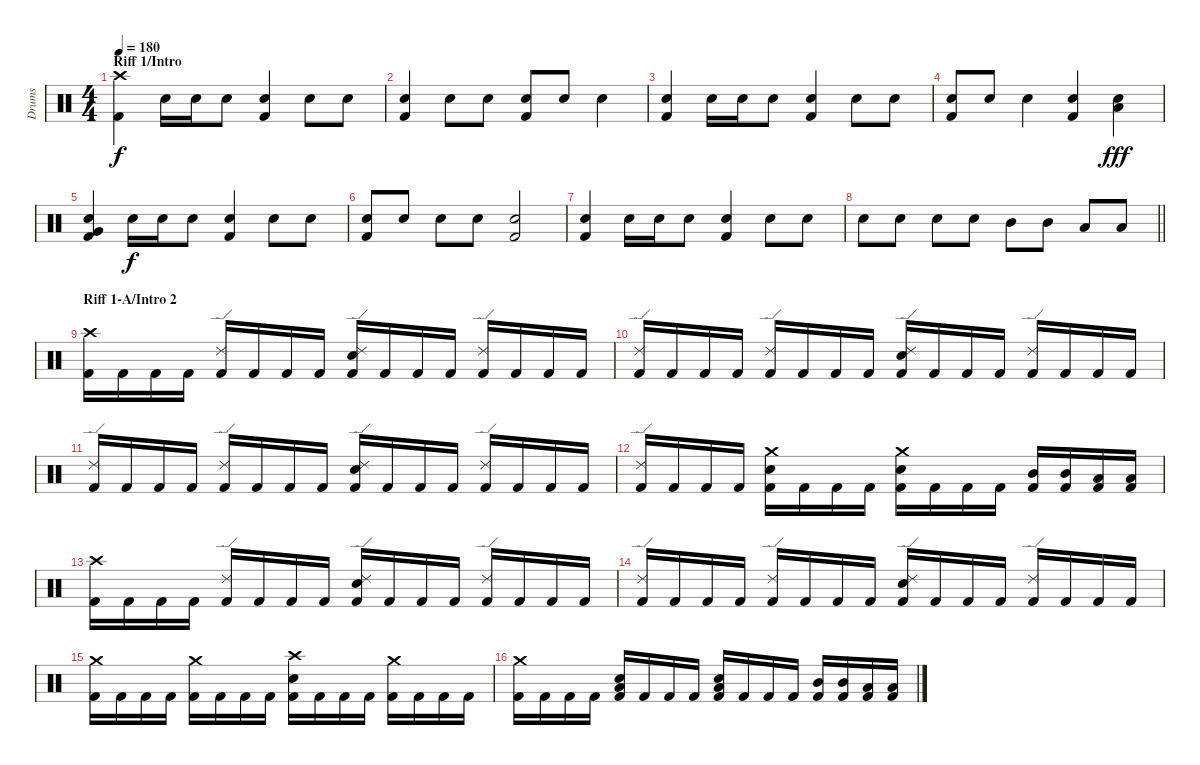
\track ("Drums" "Drums") {instrument percussion}
\staff {score}
\articulation defaults
\ts (4 4)
\section ("" "Riff 1/Intro")
\tempo 180
\clef neutral
\ks c
("Crash high (hit)" "Kick (hit) 2").4{dy f} "Electric Snare (hit)".16 "Electric Snare (hit)".16 "Electric Snare (hit)".8 ("Electric Snare (hit)" "Kick (hit) 2").4 "Electric Snare (hit)".8 "Electric Snare (hit)".8 |
("Electric Snare (hit)" "Kick (hit) 2").4 "Electric Snare (hit)".8 "Electric Snare (hit)".8 ("Electric Snare (hit)" "Kick (hit) 2").8 "Electric Snare (hit)".8 "Electric Snare (hit)".4 |
("Electric Snare (hit)" "Kick (hit) 2").4 "Electric Snare (hit)".16 "Electric Snare (hit)".16 "Electric Snare (hit)".8 ("Electric Snare (hit)" "Kick (hit) 2").4 "Electric Snare (hit)".8 "Electric Snare (hit)".8 |
("Electric Snare (hit)" "Kick (hit) 2").8 "Electric Snare (hit)".8 "Electric Snare (hit)".4 ("Electric Snare (hit)" "Kick (hit) 2").4 ("Low Tom (hit)" "Electric Snare (hit)").4{dy fff} |
("Very Low Tom (hit)" "Electric Snare (hit)" "Kick (hit) 2").4 "Electric Snare (hit)".16{dy f} "Electric Snare (hit)".16 "Electric Snare (hit)".8 ("Electric Snare (hit)" "Kick (hit) 2").4 "Electric Snare (hit)".8 "Electric Snare (hit)".8 |
("Electric Snare (hit)" "Kick (hit) 2").8 "Electric Snare (hit)".8 "Electric Snare (hit)".8 "Electric Snare (hit)".8 ("Electric Snare (hit)" "Kick (hit) 2").2 |
("Electric Snare (hit)" "Kick (hit) 2").4 "Electric Snare (hit)".16 "Electric Snare (hit)".16 "Electric Snare (hit)".8 ("Electric Snare (hit)" "Kick (hit) 2").4 "Electric Snare (hit)".8 "Electric Snare (hit)".8 |
\barLineRight lightlight "Electric Snare (hit)".8 "Electric Snare (hit)".8 "Electric Snare (hit)".8 "Electric Snare (hit)".8 "Mid Tom (hit)".8 "Mid Tom (hit)".8 "Low Tom (hit)".8 "Low Tom (hit)".8
|
\section ("" "Riff 1-A/Intro 2")
("Crash high (hit)" "Kick (hit) 2").16 "Kick (hit) 2".16 "Kick (hit) 2".16 "Kick (hit) 2".16 ("Ride (edge) 2" "Kick (hit) 2").16 "Kick (hit) 2".16 "Kick (hit) 2".16 "Kick (hit) 2".16 ("Ride (edge) 2" "Electric Snare (hit)" "Kick (hit) 2").16 "Kick (hit) 2".16 "Kick (hit) 2".16 "Kick (hit) 2".16 ("Ride (edge) 2" "Kick (hit) 2").16 "Kick (hit) 2".16 "Kick (hit) 2".16 "Kick (hit) 2".16 |
("Ride (edge) 2" "Kick (hit) 2").16 "Kick (hit) 2".16 "Kick (hit) 2".16 "Kick (hit) 2".16 ("Ride (edge) 2" "Kick (hit) 2").16 "Kick (hit) 2".16 "Kick (hit) 2".16 "Kick (hit) 2".16 ("Ride (edge) 2" "Electric Snare (hit)" "Kick (hit) 2").16 "Kick (hit) 2".16 "Kick (hit) 2".16 "Kick (hit) 2".16 ("Ride (edge) 2" "Kick (hit) 2").16 "Kick (hit) 2".16 "Kick (hit) 2".16 "Kick (hit) 2".16 |
("Ride (edge) 2" "Kick (hit) 2").16 "Kick (hit) 2".16 "Kick (hit) 2".16 "Kick (hit) 2".16 ("Ride (edge) 2" "Kick (hit) 2").16 "Kick (hit) 2".16 "Kick (hit) 2".16 "Kick (hit) 2".16 ("Ride (edge) 2" "Electric Snare (hit)" "Kick (hit) 2").16 "Kick (hit) 2".16 "Kick (hit) 2".16 "Kick (hit) 2".16 ("Ride (edge) 2" "Kick (hit) 2").16 "Kick (hit) 2".16 "Kick (hit) 2".16 "Kick (hit) 2".16 |
("Ride (edge) 2" "Kick (hit) 2").16 "Kick (hit) 2".16 "Kick (hit) 2".16 "Kick (hit) 2".16 ("Crash medium (hit)" "Electric Snare (hit)" "Kick (hit) 2").16 "Kick (hit) 2".16 "Kick (hit) 2".16 "Kick (hit) 2".16 ("Crash medium (hit)" "Electric Snare (hit)" "Kick (hit) 2").16 "Kick (hit) 2".16 "Kick (hit) 2".16 "Kick (hit) 2".16 ("Mid Tom (hit)" "Kick (hit) 2").16 ("Mid Tom (hit)" "Kick (hit) 2").16 ("Low Tom (hit)" "Kick (hit) 2").16 ("Low Tom (hit)" "Kick (hit) 2").16 |
("Crash high (hit)" "Kick (hit) 2").16 "Kick (hit) 2".16 "Kick (hit) 2".16 "Kick (hit) 2".16 ("Ride (edge) 2" "Kick (hit) 2").16 "Kick (hit) 2".16 "Kick (hit) 2".16 "Kick (hit) 2".16 ("Ride (edge) 2" "Electric Snare (hit)" "Kick (hit) 2").16 "Kick (hit) 2".16 "Kick (hit) 2".16 "Kick (hit) 2".16 ("Ride (edge) 2" "Kick (hit) 2").16 "Kick (hit) 2".16 "Kick (hit) 2".16 "Kick (hit) 2".16 |
("Ride (edge) 2" "Kick (hit) 2").16 "Kick (hit) 2".16 "Kick (hit) 2".16 "Kick (hit) 2".16 ("Ride (edge) 2" "Kick (hit) 2").16 "Kick (hit) 2".16 "Kick (hit) 2".16 "Kick (hit) 2".16 ("Ride (edge) 2" "Electric Snare (hit)" "Kick (hit) 2").16 "Kick (hit) 2".16 "Kick (hit) 2".16 "Kick (hit) 2".16 ("Ride (edge) 2" "Kick (hit) 2").16 "Kick (hit) 2".16 "Kick (hit) 2".16 "Kick (hit) 2".16 |
("Crash medium (hit)" "Kick (hit) 2").16 "Kick (hit) 2".16 "Kick (hit) 2".16 "Kick (hit) 2".16 ("Crash medium (hit)" "Kick (hit) 2").16 "Kick (hit) 2".16 "Kick (hit) 2".16 "Kick (hit) 2".16 ("Crash high (hit)" "Electric Snare (hit)" "Kick (hit) 2").16 "Kick (hit) 2".16 "Kick (hit) 2".16 "Kick (hit) 2".16 ("Crash medium (hit)" "Kick (hit) 2").16 "Kick (hit) 2".16 "Kick (hit) 2".16 "Kick (hit) 2".16 |
("Crash medium (hit)" "Kick (hit) 2").16 "Kick (hit) 2".16 "Kick (hit) 2".16 "Kick (hit) 2".16 ("Low Tom (hit)" "Electric Snare (hit)" "Kick (hit) 2").16 "Kick (hit) 2".16 "Kick (hit) 2".16 "Kick (hit) 2".16 ("Low Tom (hit)" "Electric Snare (hit)" "Kick (hit) 2").16 "Kick (hit) 2".16 "Kick (hit) 2".16 "Kick (hit) 2".16 ("Mid Tom (hit)" "Kick (hit) 2").16 ("Mid Tom (hit)" "Kick (hit) 2").16 ("Low Tom (hit)" "Kick (hit) 2").16 ("Low Tom (hit)" "Kick (hit) 2").16
